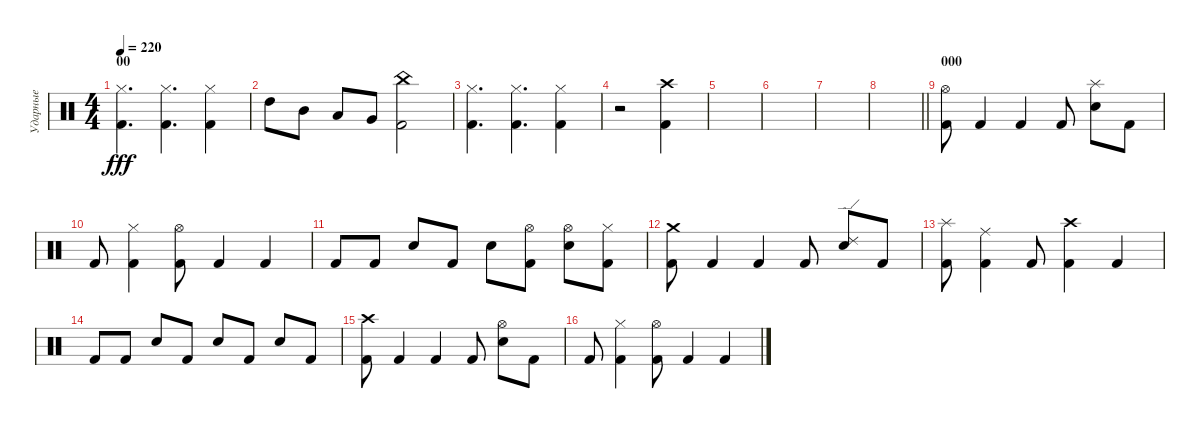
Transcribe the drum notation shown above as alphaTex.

\track ("Ударные" "Ударные") {instrument percussion}
\staff {score}
\articulation defaults
\ts (4 4)
\section ("" "00")
\tempo 220
\clef neutral
\ks c
("Hi-Hat (closed)" "Kick (hit) 2").4{d dy fff} ("Hi-Hat (closed)" "Kick (hit) 2").4{d} ("Hi-Hat (closed)" "Kick (hit) 2").4 |
"High Tom (hit)".8 "Mid Tom (hit)".8 "Low Tom (hit)".8 "Very Low Tom (hit)".8 ("China (hit)" "Kick (hit) 2").2 |
("Hi-Hat (closed)" "Kick (hit) 2").4{d} ("Hi-Hat (closed)" "Kick (hit) 2").4{d} ("Hi-Hat (closed)" "Kick (hit) 2").4 |
r.2 ("Crash high (hit)" "Kick (hit) 2").4 |
|
|
|
\barLineRight lightlight
|
\section ("" "000")
("Kick (hit) 2" "Hi-Hat (open)").8 "Kick (hit) 2".4 "Kick (hit) 2".4 "Kick (hit) 2".8 ("Snare (hit) 2" "Splash (hit)").8 "Kick (hit) 2".8 |
"Kick (hit) 2".8 ("Kick (hit) 2" "Hi-Hat (closed)").4 ("Kick (hit) 2" "Hi-Hat (open)").8 "Kick (hit) 2".4 "Kick (hit) 2".4 |
"Kick (hit) 2".8 "Kick (hit) 2".8 "Snare (hit) 2".8 "Kick (hit) 2".8 "Snare (hit) 2".8 ("Kick (hit) 2" "Hi-Hat (open)").8 ("Snare (hit) 2" "Hi-Hat (open)").8 ("Kick (hit) 2" "Hi-Hat (closed)").8 |
("Kick (hit) 2" "Crash medium (hit)").8 "Kick (hit) 2".4 "Kick (hit) 2".4 "Kick (hit) 2".8 ("Snare (hit) 2" "Ride (edge) 2").8 "Kick (hit) 2".8 |
("Kick (hit) 2" "Splash (hit)").8 ("Kick (hit) 2" "Ride (middle)").4 "Kick (hit) 2".8 ("Kick (hit) 2" "Crash high (hit)").4 "Kick (hit) 2".4 |
"Kick (hit) 2".8 "Kick (hit) 2".8 "Snare (hit) 2".8 "Kick (hit) 2".8 "Snare (hit) 2".8 "Kick (hit) 2".8 "Snare (hit) 2".8 "Kick (hit) 2".8 |
("Kick (hit) 2" "Crash high (hit)").8 "Kick (hit) 2".4 "Kick (hit) 2".4 "Kick (hit) 2".8 ("Snare (hit) 2" "Hi-Hat (open)").8 "Kick (hit) 2".8 |
"Kick (hit) 2".8 ("Kick (hit) 2" "Hi-Hat (closed)").4 ("Kick (hit) 2" "Hi-Hat (open)").8 "Kick (hit) 2".4 "Kick (hit) 2".4
